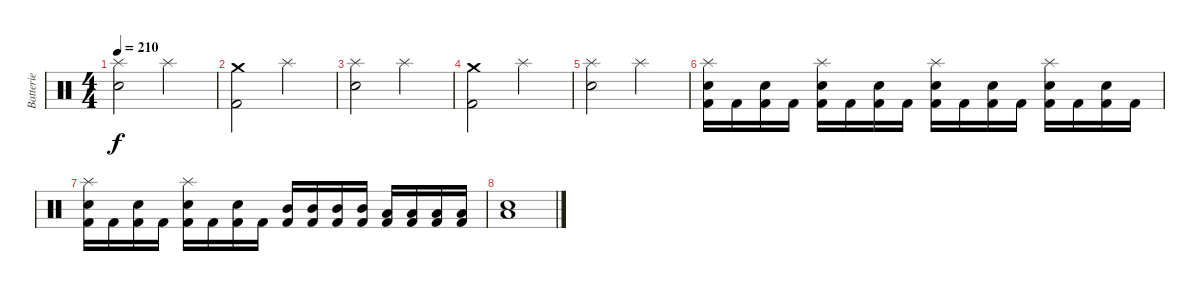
\track ("Batterie" "Batterie") {instrument percussion}
\staff {score}
\articulation defaults
\ts (4 4)
\tempo 210
\clef neutral
\ks c
("Splash (hit)" "Electric Snare (hit)").2{dy f} "Splash (hit)".2 |
("Crash medium (hit)" "Kick (hit) 2").2 "Splash (hit)".2 |
("Splash (hit)" "Electric Snare (hit)").2 "Splash (hit)".2 |
("Crash medium (hit)" "Kick (hit) 2").2 "Splash (hit)".2 |
("Splash (hit)" "Electric Snare (hit)").2 "Splash (hit)".2 |
("Splash (hit)" "Electric Snare (hit)" "Kick (hit) 2").16 "Kick (hit) 2".16 ("Electric Snare (hit)" "Kick (hit) 2").16 "Kick (hit) 2".16 ("Splash (hit)" "Electric Snare (hit)" "Kick (hit) 2").16 "Kick (hit) 2".16 ("Electric Snare (hit)" "Kick (hit) 2").16 "Kick (hit) 2".16 ("Splash (hit)" "Electric Snare (hit)" "Kick (hit) 2").16 "Kick (hit) 2".16 ("Electric Snare (hit)" "Kick (hit) 2").16 "Kick (hit) 2".16 ("Splash (hit)" "Electric Snare (hit)" "Kick (hit) 2").16 "Kick (hit) 2".16 ("Electric Snare (hit)" "Kick (hit) 2").16 "Kick (hit) 2".16 |
("Splash (hit)" "Electric Snare (hit)" "Kick (hit) 2").16 "Kick (hit) 2".16 ("Electric Snare (hit)" "Kick (hit) 2").16 "Kick (hit) 2".16 ("Splash (hit)" "Electric Snare (hit)" "Kick (hit) 2").16 "Kick (hit) 2".16 ("Electric Snare (hit)" "Kick (hit) 2").16 "Kick (hit) 2".16 ("Mid Tom (hit)" "Kick (hit) 2").16 ("Mid Tom (hit)" "Kick (hit) 2").16 ("Mid Tom (hit)" "Kick (hit) 2").16 ("Mid Tom (hit)" "Kick (hit) 2").16 ("Low Tom (hit)" "Kick (hit) 2").16 ("Low Tom (hit)" "Kick (hit) 2").16 ("Low Tom (hit)" "Kick (hit) 2").16 ("Low Tom (hit)" "Kick (hit) 2").16 |
("Low Floor Tom (hit)" "Electric Snare (hit)").1
